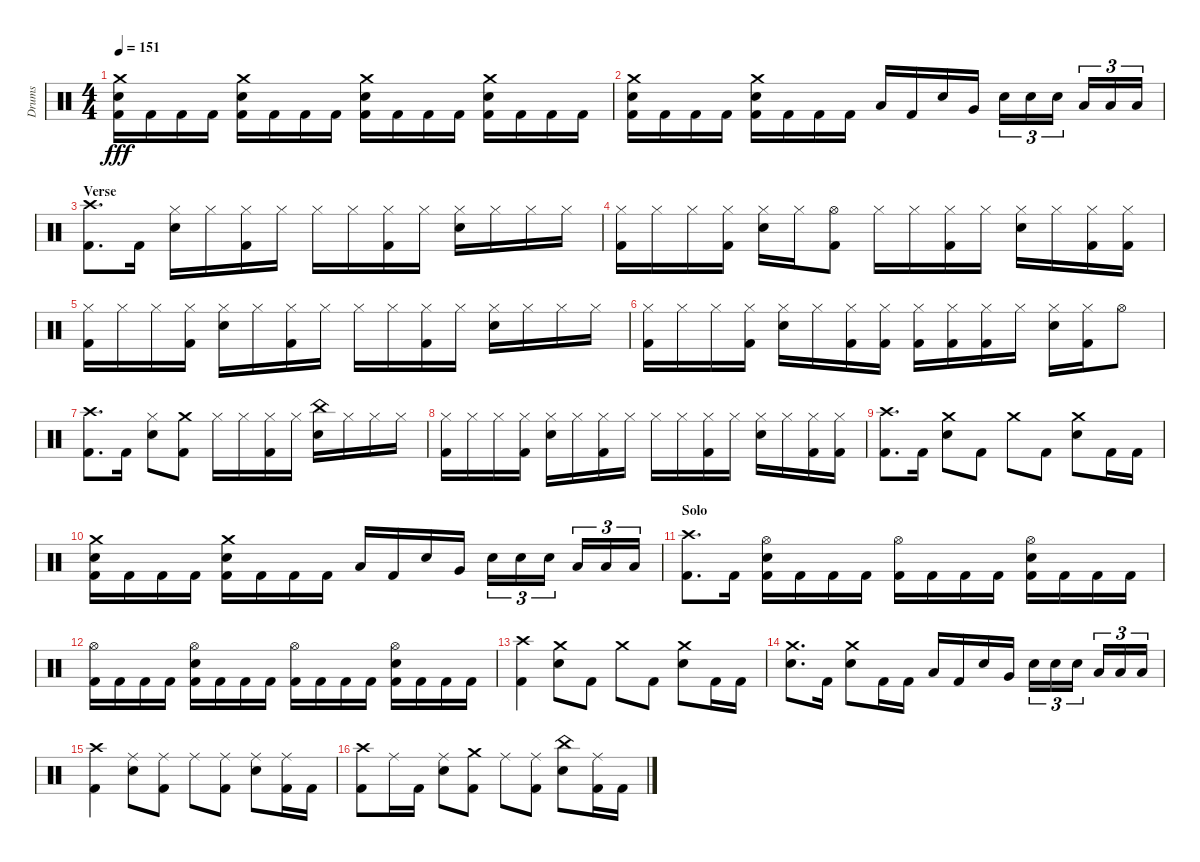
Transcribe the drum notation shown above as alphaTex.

\track ("Drums" "Drums") {instrument percussion}
\staff {score}
\articulation defaults
\ts (4 4)
\tempo 151
\clef neutral
\ks aminor
("Kick (hit) 2" "Snare (hit) 2" "Crash medium (hit)").16{dy fff} "Kick (hit) 2".16 "Kick (hit) 2".16 "Kick (hit) 2".16 ("Kick (hit) 2" "Snare (hit) 2" "Crash medium (hit)").16 "Kick (hit) 2".16 "Kick (hit) 2".16 "Kick (hit) 2".16 ("Kick (hit) 2" "Snare (hit) 2" "Crash medium (hit)").16 "Kick (hit) 2".16 "Kick (hit) 2".16 "Kick (hit) 2".16 ("Kick (hit) 2" "Snare (hit) 2" "Crash medium (hit)").16 "Kick (hit) 2".16 "Kick (hit) 2".16 "Kick (hit) 2".16 |
("Kick (hit) 2" "Snare (hit) 2" "Crash medium (hit)").16 "Kick (hit) 2".16 "Kick (hit) 2".16 "Kick (hit) 2".16 ("Kick (hit) 2" "Snare (hit) 2" "Crash medium (hit)").16 "Kick (hit) 2".16 "Kick (hit) 2".16 "Kick (hit) 2".16 "Low Tom (hit)".16 "Kick (hit) 2".16 "Snare (hit) 2".16 "Very Low Tom (hit)".16 "Snare (hit) 2".16{tu (3 2)} "Snare (hit) 2".16{tu (3 2)} "Snare (hit) 2".16{tu (3 2)} "Low Floor Tom (hit)".16{tu (3 2)} "Low Floor Tom (hit)".16{tu (3 2)} "Low Floor Tom (hit)".16{tu (3 2)} |
\section ("" "Verse")
("Kick (hit) 2" "Crash high (hit)").8{d} "Kick (hit) 2".16 ("Snare (hit) 2" "Hi-Hat (closed)").16 "Hi-Hat (closed)".16 ("Kick (hit) 2" "Hi-Hat (closed)").16 "Hi-Hat (closed)".16 "Hi-Hat (closed)".16 "Hi-Hat (closed)".16 ("Kick (hit) 2" "Hi-Hat (closed)").16 "Hi-Hat (closed)".16 ("Snare (hit) 2" "Hi-Hat (closed)").16 "Hi-Hat (closed)".16 "Hi-Hat (closed)".16 "Hi-Hat (closed)".16 |
("Kick (hit) 2" "Hi-Hat (closed)").16 "Hi-Hat (closed)".16 "Hi-Hat (closed)".16 ("Kick (hit) 2" "Hi-Hat (closed)").16 ("Snare (hit) 2" "Hi-Hat (closed)").16 "Hi-Hat (closed)".16 ("Kick (hit) 2" "Hi-Hat (open)").8 "Hi-Hat (closed)".16 "Hi-Hat (closed)".16 ("Kick (hit) 2" "Hi-Hat (closed)").16 "Hi-Hat (closed)".16 ("Snare (hit) 2" "Hi-Hat (closed)").16 "Hi-Hat (closed)".16 ("Kick (hit) 2" "Hi-Hat (closed)").16 ("Kick (hit) 2" "Hi-Hat (closed)").16 |
("Kick (hit) 2" "Hi-Hat (closed)").16 "Hi-Hat (closed)".16 "Hi-Hat (closed)".16 ("Kick (hit) 2" "Hi-Hat (closed)").16 ("Snare (hit) 2" "Hi-Hat (closed)").16 "Hi-Hat (closed)".16 ("Kick (hit) 2" "Hi-Hat (closed)").16 "Hi-Hat (closed)".16 "Hi-Hat (closed)".16 "Hi-Hat (closed)".16 ("Kick (hit) 2" "Hi-Hat (closed)").16 "Hi-Hat (closed)".16 ("Snare (hit) 2" "Hi-Hat (closed)").16 "Hi-Hat (closed)".16 "Hi-Hat (closed)".16 "Hi-Hat (closed)".16 |
("Kick (hit) 2" "Hi-Hat (closed)").16 "Hi-Hat (closed)".16 "Hi-Hat (closed)".16 ("Kick (hit) 2" "Hi-Hat (closed)").16 ("Snare (hit) 2" "Hi-Hat (closed)").16 "Hi-Hat (closed)".16 ("Kick (hit) 2" "Hi-Hat (closed)").16 ("Kick (hit) 2" "Hi-Hat (closed)").16 ("Kick (hit) 2" "Hi-Hat (closed)").16 ("Kick (hit) 2" "Hi-Hat (closed)").16 ("Kick (hit) 2" "Hi-Hat (closed)").16 "Hi-Hat (closed)".16 ("Snare (hit) 2" "Hi-Hat (closed)").16 ("Kick (hit) 2" "Hi-Hat (closed)").16 "Hi-Hat (open)".8 |
("Kick (hit) 2" "Crash high (hit)").8{d} "Kick (hit) 2".16 ("Snare (hit) 2" "Hi-Hat (closed)").8 ("Kick (hit) 2" "Crash medium (hit)").8 "Hi-Hat (closed)".16 "Hi-Hat (closed)".16 ("Kick (hit) 2" "Hi-Hat (closed)").16 "Hi-Hat (closed)".16 ("Snare (hit) 2" "China (hit)").16 "Hi-Hat (closed)".16 "Hi-Hat (closed)".16 "Hi-Hat (closed)".16 |
("Kick (hit) 2" "Hi-Hat (closed)").16 "Hi-Hat (closed)".16 "Hi-Hat (closed)".16 ("Kick (hit) 2" "Hi-Hat (closed)").16 ("Snare (hit) 2" "Hi-Hat (closed)").16 "Hi-Hat (closed)".16 ("Kick (hit) 2" "Hi-Hat (closed)").16 "Hi-Hat (closed)".16 "Hi-Hat (closed)".16 "Hi-Hat (closed)".16 ("Kick (hit) 2" "Hi-Hat (closed)").16 "Hi-Hat (closed)".16 ("Snare (hit) 2" "Hi-Hat (closed)").16 "Hi-Hat (closed)".16 ("Kick (hit) 2" "Hi-Hat (closed)").16 ("Kick (hit) 2" "Hi-Hat (closed)").16 |
("Kick (hit) 2" "Crash high (hit)").8{d} "Kick (hit) 2".16 ("Snare (hit) 2" "Crash medium (hit)").8 "Kick (hit) 2".8 "Crash medium (hit)".8 "Kick (hit) 2".8 ("Snare (hit) 2" "Crash medium (hit)").8 "Kick (hit) 2".16 "Kick (hit) 2".16 |
("Kick (hit) 2" "Snare (hit) 2" "Crash medium (hit)").16 "Kick (hit) 2".16 "Kick (hit) 2".16 "Kick (hit) 2".16 ("Kick (hit) 2" "Snare (hit) 2" "Crash medium (hit)").16 "Kick (hit) 2".16 "Kick (hit) 2".16 "Kick (hit) 2".16 "Low Tom (hit)".16 "Kick (hit) 2".16 "Snare (hit) 2".16 "Very Low Tom (hit)".16 "Snare (hit) 2".16{tu (3 2)} "Snare (hit) 2".16{tu (3 2)} "Snare (hit) 2".16{tu (3 2)} "Low Floor Tom (hit)".16{tu (3 2)} "Low Floor Tom (hit)".16{tu (3 2)} "Low Floor Tom (hit)".16{tu (3 2)} |
\section ("" "Solo")
("Kick (hit) 2" "Crash high (hit)").8{d} "Kick (hit) 2".16 ("Kick (hit) 2" "Snare (hit) 2" "Hi-Hat (open)").16 "Kick (hit) 2".16 "Kick (hit) 2".16 "Kick (hit) 2".16 ("Kick (hit) 2" "Hi-Hat (open)").16 "Kick (hit) 2".16 "Kick (hit) 2".16 "Kick (hit) 2".16 ("Kick (hit) 2" "Snare (hit) 2" "Hi-Hat (open)").16 "Kick (hit) 2".16 "Kick (hit) 2".16 "Kick (hit) 2".16 |
("Kick (hit) 2" "Hi-Hat (open)").16 "Kick (hit) 2".16 "Kick (hit) 2".16 "Kick (hit) 2".16 ("Kick (hit) 2" "Snare (hit) 2" "Hi-Hat (open)").16 "Kick (hit) 2".16 "Kick (hit) 2".16 "Kick (hit) 2".16 ("Kick (hit) 2" "Hi-Hat (open)").16 "Kick (hit) 2".16 "Kick (hit) 2".16 "Kick (hit) 2".16 ("Kick (hit) 2" "Snare (hit) 2" "Hi-Hat (open)").16 "Kick (hit) 2".16 "Kick (hit) 2".16 "Kick (hit) 2".16 |
("Kick (hit) 2" "Crash high (hit)").4 ("Snare (hit) 2" "Crash medium (hit)").8 "Kick (hit) 2".8 "Crash medium (hit)".8 "Kick (hit) 2".8 ("Snare (hit) 2" "Crash medium (hit)").8 "Kick (hit) 2".16 "Kick (hit) 2".16 |
("Snare (hit) 2" "Crash medium (hit)").8{d} "Kick (hit) 2".16 ("Snare (hit) 2" "Crash medium (hit)").8 "Kick (hit) 2".16 "Kick (hit) 2".16 "Low Tom (hit)".16 "Kick (hit) 2".16 "Snare (hit) 2".16 "Very Low Tom (hit)".16 "Snare (hit) 2".16{tu (3 2)} "Snare (hit) 2".16{tu (3 2)} "Snare (hit) 2".16{tu (3 2)} "Low Floor Tom (hit)".16{tu (3 2)} "Low Floor Tom (hit)".16{tu (3 2)} "Low Floor Tom (hit)".16{tu (3 2)} |
("Kick (hit) 2" "Crash high (hit)").4 ("Snare (hit) 2" "Ride (middle)").8 ("Kick (hit) 2" "Ride (middle)").8 "Ride (middle)".8 ("Kick (hit) 2" "Ride (middle)").8 ("Snare (hit) 2" "Ride (middle)").8 ("Kick (hit) 2" "Ride (middle)").16 "Kick (hit) 2".16 |
("Kick (hit) 2" "Crash high (hit)").8 "Ride (middle)".16 "Kick (hit) 2".16 ("Snare (hit) 2" "Ride (middle)").8 ("Kick (hit) 2" "Crash medium (hit)").8 "Ride (middle)".8 ("Kick (hit) 2" "Ride (middle)").8 ("Snare (hit) 2" "China (hit)").8 ("Kick (hit) 2" "Ride (middle)").16 "Kick (hit) 2".16
